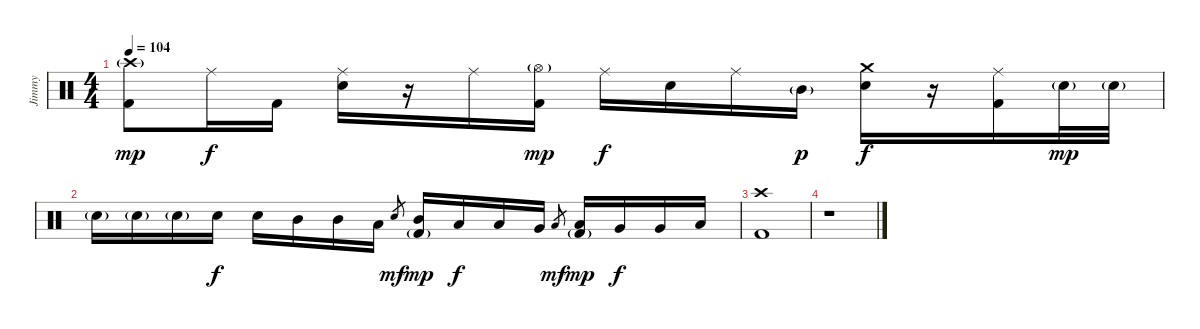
\track ("Jimmy" "Jimmy") {instrument percussion}
\staff {score}
\articulation defaults
\ts (4 4)
\tempo 104
\clef neutral
\ks c
("Crash high (hit)"{g} "Kick (hit) 2").8{dy mp} "Ride (middle)".16{dy f} "Kick (hit) 2".16 ("Ride (middle)" "Electric Snare (hit)").16 r.16 "Ride (middle)".16 ("Hi-Hat (open)"{g} "Kick (hit) 2").16{dy mp} "Ride (middle)".16{dy f} "Electric Snare (hit)".16 "Ride (middle)".16 "Mid Tom (hit)"{g}.16{dy p} ("Crash medium (hit)" "Electric Snare (hit)").16{dy f} r.16 ("Ride (middle)" "Kick (hit) 2").16 "Electric Snare (hit)"{g}.32{dy mp} "Electric Snare (hit)"{g}.32 |
"Electric Snare (hit)"{g}.16 "Electric Snare (hit)"{g}.16 "Electric Snare (hit)"{g}.16 "Electric Snare (hit)".16{dy f} "Electric Snare (hit)".16 "Mid Tom (hit)".16 "Mid Tom (hit)".16 "Low Tom (hit)".16 "Electric Snare (hit)".8{gr dy mf} ("Mid Tom (hit)" "Kick (hit) 2"{g}).16{dy mp} "Low Tom (hit)".16{dy f} "Low Tom (hit)".16 "Very Low Tom (hit)".16 "Low Tom (hit)".8{gr dy mf} ("Low Tom (hit)" "Kick (hit) 2"{g}).16{dy mp} "Very Low Tom (hit)".16{dy f} "Very Low Tom (hit)".16 "Low Floor Tom (hit)".16 |
("Crash high (hit)" "Kick (hit) 2").1 |
r.1
